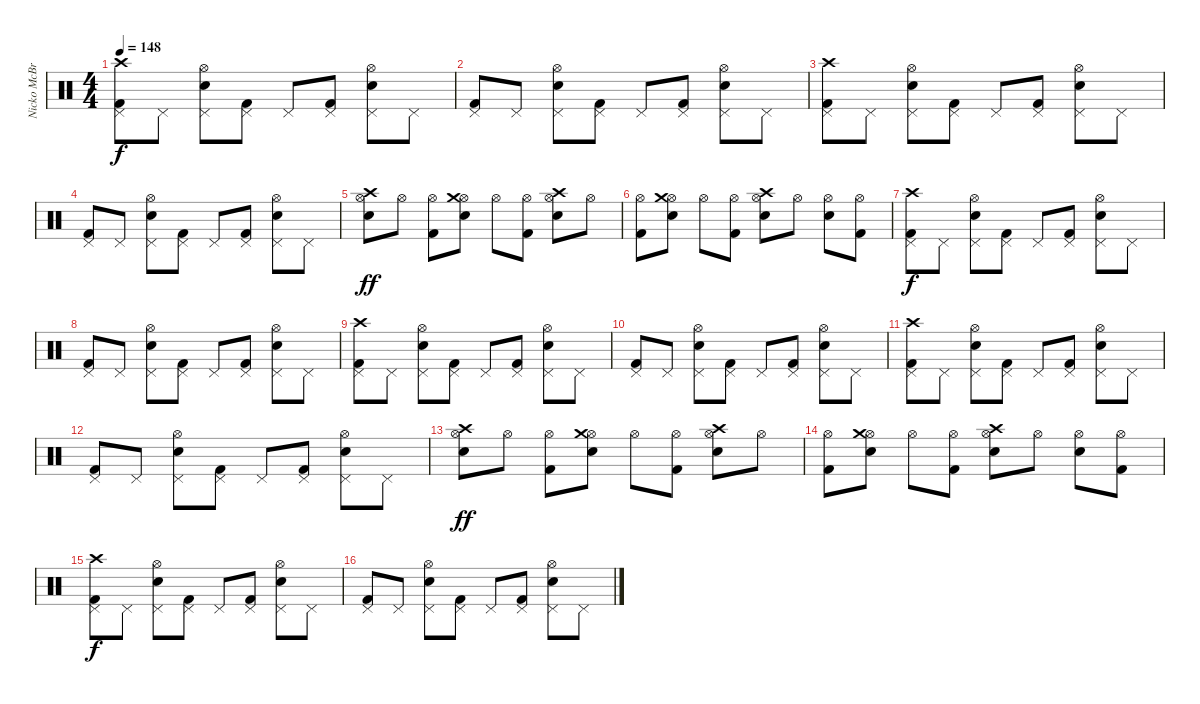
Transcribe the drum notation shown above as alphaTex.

\track ("Nicko McBrain" "Nicko McBr") {instrument percussion}
\staff {score}
\articulation defaults
\ts (4 4)
\tempo 148
\clef neutral
\ks c
("Kick (hit) 2" "Pedal Hi-Hat (hit)" "Crash high (hit)").8{dy f} "Pedal Hi-Hat (hit)".8 ("Snare (hit) 2" "Pedal Hi-Hat (hit)" "Hi-Hat (open)").8 ("Kick (hit) 2" "Pedal Hi-Hat (hit)").8 "Pedal Hi-Hat (hit)".8 ("Kick (hit) 2" "Pedal Hi-Hat (hit)").8 ("Snare (hit) 2" "Pedal Hi-Hat (hit)" "Hi-Hat (open)").8 "Pedal Hi-Hat (hit)".8 |
("Kick (hit) 2" "Pedal Hi-Hat (hit)").8 "Pedal Hi-Hat (hit)".8 ("Snare (hit) 2" "Pedal Hi-Hat (hit)" "Hi-Hat (open)").8 ("Kick (hit) 2" "Pedal Hi-Hat (hit)").8 "Pedal Hi-Hat (hit)".8 ("Kick (hit) 2" "Pedal Hi-Hat (hit)").8 ("Snare (hit) 2" "Pedal Hi-Hat (hit)" "Hi-Hat (open)").8 "Pedal Hi-Hat (hit)".8 |
("Kick (hit) 2" "Pedal Hi-Hat (hit)" "Crash high (hit)").8 "Pedal Hi-Hat (hit)".8 ("Snare (hit) 2" "Pedal Hi-Hat (hit)" "Hi-Hat (open)").8 ("Kick (hit) 2" "Pedal Hi-Hat (hit)").8 "Pedal Hi-Hat (hit)".8 ("Kick (hit) 2" "Pedal Hi-Hat (hit)").8 ("Snare (hit) 2" "Pedal Hi-Hat (hit)" "Hi-Hat (open)").8 "Pedal Hi-Hat (hit)".8 |
("Kick (hit) 2" "Pedal Hi-Hat (hit)").8 "Pedal Hi-Hat (hit)".8 ("Snare (hit) 2" "Pedal Hi-Hat (hit)" "Hi-Hat (open)").8 ("Kick (hit) 2" "Pedal Hi-Hat (hit)").8 "Pedal Hi-Hat (hit)".8 ("Kick (hit) 2" "Pedal Hi-Hat (hit)").8 ("Snare (hit) 2" "Pedal Hi-Hat (hit)" "Hi-Hat (open)").8 "Pedal Hi-Hat (hit)".8 |
("Snare (hit) 2" "Hi-Hat (open)" "Crash high (hit)").8{dy ff} "Hi-Hat (open)".8 ("Kick (hit) 2" "Hi-Hat (open)").8 ("Snare (hit) 2" "Hi-Hat (open)" "Crash medium (hit)").8 "Hi-Hat (open)".8 ("Kick (hit) 2" "Hi-Hat (open)").8 ("Snare (hit) 2" "Hi-Hat (open)" "Crash high (hit)").8 "Hi-Hat (open)".8 |
("Kick (hit) 2" "Hi-Hat (open)").8 ("Snare (hit) 2" "Hi-Hat (open)" "Crash medium (hit)").8 "Hi-Hat (open)".8 ("Kick (hit) 2" "Hi-Hat (open)").8 ("Snare (hit) 2" "Hi-Hat (open)" "Crash high (hit)").8 "Hi-Hat (open)".8 ("Snare (hit) 2" "Hi-Hat (open)").8 ("Kick (hit) 2" "Hi-Hat (open)").8 |
("Kick (hit) 2" "Pedal Hi-Hat (hit)" "Crash high (hit)").8{dy f} "Pedal Hi-Hat (hit)".8 ("Snare (hit) 2" "Pedal Hi-Hat (hit)" "Hi-Hat (open)").8 ("Kick (hit) 2" "Pedal Hi-Hat (hit)").8 "Pedal Hi-Hat (hit)".8 ("Kick (hit) 2" "Pedal Hi-Hat (hit)").8 ("Snare (hit) 2" "Pedal Hi-Hat (hit)" "Hi-Hat (open)").8 "Pedal Hi-Hat (hit)".8 |
("Kick (hit) 2" "Pedal Hi-Hat (hit)").8 "Pedal Hi-Hat (hit)".8 ("Snare (hit) 2" "Pedal Hi-Hat (hit)" "Hi-Hat (open)").8 ("Kick (hit) 2" "Pedal Hi-Hat (hit)").8 "Pedal Hi-Hat (hit)".8 ("Kick (hit) 2" "Pedal Hi-Hat (hit)").8 ("Snare (hit) 2" "Pedal Hi-Hat (hit)" "Hi-Hat (open)").8 "Pedal Hi-Hat (hit)".8 |
("Kick (hit) 2" "Pedal Hi-Hat (hit)" "Crash high (hit)").8 "Pedal Hi-Hat (hit)".8 ("Snare (hit) 2" "Pedal Hi-Hat (hit)" "Hi-Hat (open)").8 ("Kick (hit) 2" "Pedal Hi-Hat (hit)").8 "Pedal Hi-Hat (hit)".8 ("Kick (hit) 2" "Pedal Hi-Hat (hit)").8 ("Snare (hit) 2" "Pedal Hi-Hat (hit)" "Hi-Hat (open)").8 "Pedal Hi-Hat (hit)".8 |
("Kick (hit) 2" "Pedal Hi-Hat (hit)").8 "Pedal Hi-Hat (hit)".8 ("Snare (hit) 2" "Pedal Hi-Hat (hit)" "Hi-Hat (open)").8 ("Kick (hit) 2" "Pedal Hi-Hat (hit)").8 "Pedal Hi-Hat (hit)".8 ("Kick (hit) 2" "Pedal Hi-Hat (hit)").8 ("Snare (hit) 2" "Pedal Hi-Hat (hit)" "Hi-Hat (open)").8 "Pedal Hi-Hat (hit)".8 |
("Kick (hit) 2" "Pedal Hi-Hat (hit)" "Crash high (hit)").8 "Pedal Hi-Hat (hit)".8 ("Snare (hit) 2" "Pedal Hi-Hat (hit)" "Hi-Hat (open)").8 ("Kick (hit) 2" "Pedal Hi-Hat (hit)").8 "Pedal Hi-Hat (hit)".8 ("Kick (hit) 2" "Pedal Hi-Hat (hit)").8 ("Snare (hit) 2" "Pedal Hi-Hat (hit)" "Hi-Hat (open)").8 "Pedal Hi-Hat (hit)".8 |
("Kick (hit) 2" "Pedal Hi-Hat (hit)").8 "Pedal Hi-Hat (hit)".8 ("Snare (hit) 2" "Pedal Hi-Hat (hit)" "Hi-Hat (open)").8 ("Kick (hit) 2" "Pedal Hi-Hat (hit)").8 "Pedal Hi-Hat (hit)".8 ("Kick (hit) 2" "Pedal Hi-Hat (hit)").8 ("Snare (hit) 2" "Pedal Hi-Hat (hit)" "Hi-Hat (open)").8 "Pedal Hi-Hat (hit)".8 |
("Snare (hit) 2" "Hi-Hat (open)" "Crash high (hit)").8{dy ff} "Hi-Hat (open)".8 ("Kick (hit) 2" "Hi-Hat (open)").8 ("Snare (hit) 2" "Hi-Hat (open)" "Crash medium (hit)").8 "Hi-Hat (open)".8 ("Kick (hit) 2" "Hi-Hat (open)").8 ("Snare (hit) 2" "Hi-Hat (open)" "Crash high (hit)").8 "Hi-Hat (open)".8 |
("Kick (hit) 2" "Hi-Hat (open)").8 ("Snare (hit) 2" "Hi-Hat (open)" "Crash medium (hit)").8 "Hi-Hat (open)".8 ("Kick (hit) 2" "Hi-Hat (open)").8 ("Snare (hit) 2" "Hi-Hat (open)" "Crash high (hit)").8 "Hi-Hat (open)".8 ("Snare (hit) 2" "Hi-Hat (open)").8 ("Kick (hit) 2" "Hi-Hat (open)").8 |
("Kick (hit) 2" "Pedal Hi-Hat (hit)" "Crash high (hit)").8{dy f} "Pedal Hi-Hat (hit)".8 ("Snare (hit) 2" "Pedal Hi-Hat (hit)" "Hi-Hat (open)").8 ("Kick (hit) 2" "Pedal Hi-Hat (hit)").8 "Pedal Hi-Hat (hit)".8 ("Kick (hit) 2" "Pedal Hi-Hat (hit)").8 ("Snare (hit) 2" "Pedal Hi-Hat (hit)" "Hi-Hat (open)").8 "Pedal Hi-Hat (hit)".8 |
("Kick (hit) 2" "Pedal Hi-Hat (hit)").8 "Pedal Hi-Hat (hit)".8 ("Snare (hit) 2" "Pedal Hi-Hat (hit)" "Hi-Hat (open)").8 ("Kick (hit) 2" "Pedal Hi-Hat (hit)").8 "Pedal Hi-Hat (hit)".8 ("Kick (hit) 2" "Pedal Hi-Hat (hit)").8 ("Snare (hit) 2" "Pedal Hi-Hat (hit)" "Hi-Hat (open)").8 "Pedal Hi-Hat (hit)".8
